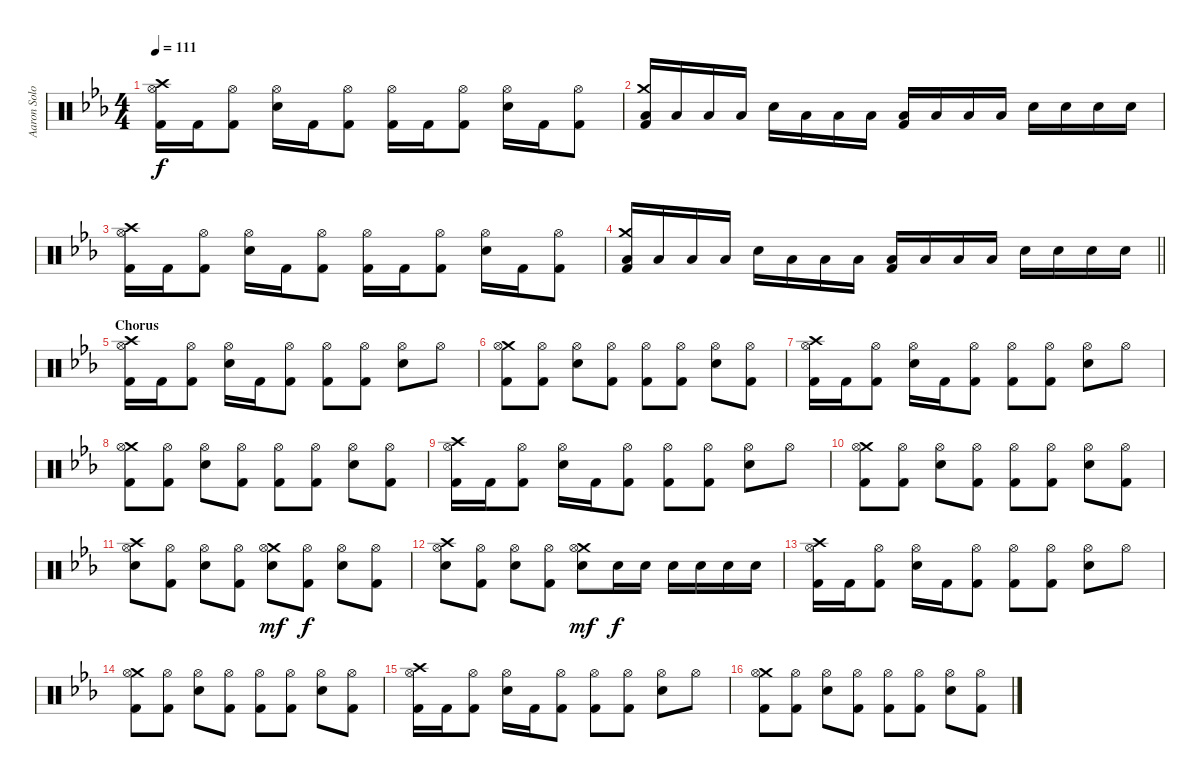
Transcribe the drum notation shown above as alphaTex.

\track ("Aaron Solowoniuk (Drums)" "Aaron Solo") {instrument percussion}
\staff {score}
\articulation defaults
\ts (4 4)
\tempo 111
\clef neutral
\ks cminor
("Crash high (hit)" "Hi-Hat (open)" "Kick (hit) 2").16{dy f} "Kick (hit) 2".16 ("Hi-Hat (open)" "Kick (hit) 2").8 ("Hi-Hat (open)" "Snare (hit) 2").16 "Kick (hit) 2".16 ("Hi-Hat (open)" "Kick (hit) 2").8 ("Hi-Hat (open)" "Kick (hit) 2").16 "Kick (hit) 2".16 ("Hi-Hat (open)" "Kick (hit) 2").8 ("Hi-Hat (open)" "Snare (hit) 2").16 "Kick (hit) 2".16 ("Hi-Hat (open)" "Kick (hit) 2").8 |
("Crash medium (hit)" "Low Floor Tom (hit)" "Kick (hit) 2").16 "Low Floor Tom (hit)".16 "Low Floor Tom (hit)".16 "Low Tom (hit)".16 "Snare (hit) 2".16 "Low Floor Tom (hit)".16 "Low Floor Tom (hit)".16 "Low Floor Tom (hit)".16 ("Low Tom (hit)" "Kick (hit) 2").16 "Low Floor Tom (hit)".16 "Low Floor Tom (hit)".16 "Low Floor Tom (hit)".16 "Snare (hit) 2".16 "Snare (hit) 2".16 "Snare (hit) 2".16 "Snare (hit) 2".16 |
("Crash high (hit)" "Hi-Hat (open)" "Kick (hit) 2").16 "Kick (hit) 2".16 ("Hi-Hat (open)" "Kick (hit) 2").8 ("Hi-Hat (open)" "Snare (hit) 2").16 "Kick (hit) 2".16 ("Hi-Hat (open)" "Kick (hit) 2").8 ("Hi-Hat (open)" "Kick (hit) 2").16 "Kick (hit) 2".16 ("Hi-Hat (open)" "Kick (hit) 2").8 ("Hi-Hat (open)" "Snare (hit) 2").16 "Kick (hit) 2".16 ("Hi-Hat (open)" "Kick (hit) 2").8 |
\barLineRight lightlight
("Crash medium (hit)" "Low Floor Tom (hit)" "Kick (hit) 2").16 "Low Floor Tom (hit)".16 "Low Floor Tom (hit)".16 "Low Tom (hit)".16 "Snare (hit) 2".16 "Low Floor Tom (hit)".16 "Low Floor Tom (hit)".16 "Low Floor Tom (hit)".16 ("Low Tom (hit)" "Kick (hit) 2").16 "Low Floor Tom (hit)".16 "Low Floor Tom (hit)".16 "Low Floor Tom (hit)".16 "Snare (hit) 2".16 "Snare (hit) 2".16 "Snare (hit) 2".16 "Snare (hit) 2".16 |
\section ("" "Chorus ")
("Crash high (hit)" "Hi-Hat (open)" "Kick (hit) 2").16 "Kick (hit) 2".16 ("Hi-Hat (open)" "Kick (hit) 2").8 ("Hi-Hat (open)" "Snare (hit) 2").16 "Kick (hit) 2".16 ("Hi-Hat (open)" "Kick (hit) 2").8 ("Hi-Hat (open)" "Kick (hit) 2").8 ("Hi-Hat (open)" "Kick (hit) 2").8 ("Hi-Hat (open)" "Snare (hit) 2").8 "Hi-Hat (open)".8 |
("Crash medium (hit)" "Hi-Hat (open)" "Kick (hit) 2").8 ("Hi-Hat (open)" "Kick (hit) 2").8 ("Hi-Hat (open)" "Snare (hit) 2").8 ("Hi-Hat (open)" "Kick (hit) 2").8 ("Hi-Hat (open)" "Kick (hit) 2").8 ("Hi-Hat (open)" "Kick (hit) 2").8 ("Hi-Hat (open)" "Snare (hit) 2").8 ("Hi-Hat (open)" "Kick (hit) 2").8 |
("Crash high (hit)" "Hi-Hat (open)" "Kick (hit) 2").16 "Kick (hit) 2".16 ("Hi-Hat (open)" "Kick (hit) 2").8 ("Hi-Hat (open)" "Snare (hit) 2").16 "Kick (hit) 2".16 ("Hi-Hat (open)" "Kick (hit) 2").8 ("Hi-Hat (open)" "Kick (hit) 2").8 ("Hi-Hat (open)" "Kick (hit) 2").8 ("Hi-Hat (open)" "Snare (hit) 2").8 "Hi-Hat (open)".8 |
("Crash medium (hit)" "Hi-Hat (open)" "Kick (hit) 2").8 ("Hi-Hat (open)" "Kick (hit) 2").8 ("Hi-Hat (open)" "Snare (hit) 2").8 ("Hi-Hat (open)" "Kick (hit) 2").8 ("Hi-Hat (open)" "Kick (hit) 2").8 ("Hi-Hat (open)" "Kick (hit) 2").8 ("Hi-Hat (open)" "Snare (hit) 2").8 ("Hi-Hat (open)" "Kick (hit) 2").8 |
("Crash high (hit)" "Hi-Hat (open)" "Kick (hit) 2").16 "Kick (hit) 2".16 ("Hi-Hat (open)" "Kick (hit) 2").8 ("Hi-Hat (open)" "Snare (hit) 2").16 "Kick (hit) 2".16 ("Hi-Hat (open)" "Kick (hit) 2").8 ("Hi-Hat (open)" "Kick (hit) 2").8 ("Hi-Hat (open)" "Kick (hit) 2").8 ("Hi-Hat (open)" "Snare (hit) 2").8 "Hi-Hat (open)".8 |
("Crash medium (hit)" "Hi-Hat (open)" "Kick (hit) 2").8 ("Hi-Hat (open)" "Kick (hit) 2").8 ("Hi-Hat (open)" "Snare (hit) 2").8 ("Hi-Hat (open)" "Kick (hit) 2").8 ("Hi-Hat (open)" "Kick (hit) 2").8 ("Hi-Hat (open)" "Kick (hit) 2").8 ("Hi-Hat (open)" "Snare (hit) 2").8 ("Hi-Hat (open)" "Kick (hit) 2").8 |
("Crash high (hit)" "Hi-Hat (open)" "Snare (hit) 2").8 ("Hi-Hat (open)" "Kick (hit) 2").8 ("Hi-Hat (open)" "Snare (hit) 2").8 ("Hi-Hat (open)" "Kick (hit) 2").8 ("Crash medium (hit)" "Hi-Hat (open)" "Snare (hit) 2").8{dy mf} ("Hi-Hat (open)" "Kick (hit) 2").8{dy f} ("Hi-Hat (open)" "Snare (hit) 2").8 ("Hi-Hat (open)" "Kick (hit) 2").8 |
("Crash high (hit)" "Hi-Hat (open)" "Snare (hit) 2").8 ("Hi-Hat (open)" "Kick (hit) 2").8 ("Hi-Hat (open)" "Snare (hit) 2").8 ("Hi-Hat (open)" "Kick (hit) 2").8 ("Crash medium (hit)" "Hi-Hat (open)" "Snare (hit) 2").8{dy mf} "Snare (hit) 2".16{dy f} "Snare (hit) 2".16 "Snare (hit) 2".16 "Snare (hit) 2".16 "Snare (hit) 2".16 "Snare (hit) 2".16 |
("Crash high (hit)" "Hi-Hat (open)" "Kick (hit) 2").16 "Kick (hit) 2".16 ("Hi-Hat (open)" "Kick (hit) 2").8 ("Hi-Hat (open)" "Snare (hit) 2").16 "Kick (hit) 2".16 ("Hi-Hat (open)" "Kick (hit) 2").8 ("Hi-Hat (open)" "Kick (hit) 2").8 ("Hi-Hat (open)" "Kick (hit) 2").8 ("Hi-Hat (open)" "Snare (hit) 2").8 "Hi-Hat (open)".8 |
("Crash medium (hit)" "Hi-Hat (open)" "Kick (hit) 2").8 ("Hi-Hat (open)" "Kick (hit) 2").8 ("Hi-Hat (open)" "Snare (hit) 2").8 ("Hi-Hat (open)" "Kick (hit) 2").8 ("Hi-Hat (open)" "Kick (hit) 2").8 ("Hi-Hat (open)" "Kick (hit) 2").8 ("Hi-Hat (open)" "Snare (hit) 2").8 ("Hi-Hat (open)" "Kick (hit) 2").8 |
("Crash high (hit)" "Hi-Hat (open)" "Kick (hit) 2").16 "Kick (hit) 2".16 ("Hi-Hat (open)" "Kick (hit) 2").8 ("Hi-Hat (open)" "Snare (hit) 2").16 "Kick (hit) 2".16 ("Hi-Hat (open)" "Kick (hit) 2").8 ("Hi-Hat (open)" "Kick (hit) 2").8 ("Hi-Hat (open)" "Kick (hit) 2").8 ("Hi-Hat (open)" "Snare (hit) 2").8 "Hi-Hat (open)".8 |
("Crash medium (hit)" "Hi-Hat (open)" "Kick (hit) 2").8 ("Hi-Hat (open)" "Kick (hit) 2").8 ("Hi-Hat (open)" "Snare (hit) 2").8 ("Hi-Hat (open)" "Kick (hit) 2").8 ("Hi-Hat (open)" "Kick (hit) 2").8 ("Hi-Hat (open)" "Kick (hit) 2").8 ("Hi-Hat (open)" "Snare (hit) 2").8 ("Hi-Hat (open)" "Kick (hit) 2").8
